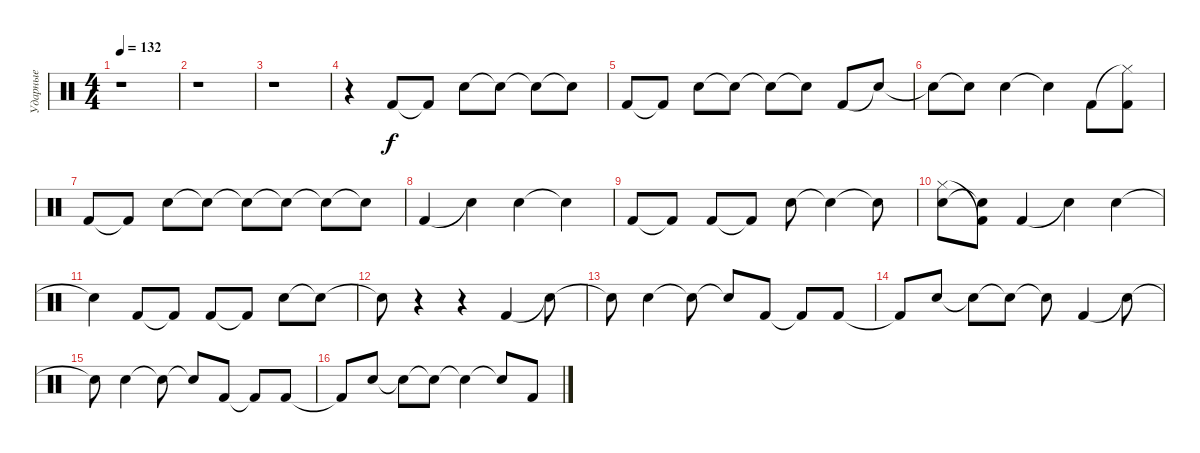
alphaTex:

\track ("Ударные" "Ударные") {instrument percussion}
\staff {score}
\articulation defaults
\ts (4 4)
\tempo 132
\clef neutral
\ks c
r.1{dy f} |
r.1 |
r.1 |
r.4 "Kick (hit) 2".8 "Kick (hit) 2"{t}.8 "Snare (hit) 2".8 "Snare (hit)"{t}.8 "Snare (hit)"{t}.8 "Snare (hit)"{t}.8 |
"Kick (hit) 2".8 "Kick (hit) 2"{t}.8 "Snare (hit) 2".8 "Snare (hit)"{t}.8 "Snare (hit)"{t}.8 "Snare (hit)"{t}.8 "Kick (hit) 2".8 "Snare (hit)"{t}.8 |
"Snare (hit)"{t}.8 "Snare (hit)"{t}.8 "Snare (hit) 2".4 "Snare (hit)"{t}.4 "Kick (hit) 2".8 ("Hi-Hat (closed)"{t} "Kick (hit) 2").8 |
"Kick (hit) 2".8 "Kick (hit) 2"{t}.8 "Snare (hit) 2".8 "Snare (hit)"{t}.8 "Snare (hit)"{t}.8 "Snare (hit)"{t}.8 "Snare (hit)"{t}.8 "Snare (hit)"{t}.8 |
"Kick (hit) 2".4 "Snare (hit)"{t}.4 "Snare (hit) 2".4 "Snare (hit)"{t}.4 |
"Kick (hit) 2".8 "Kick (hit) 2"{t}.8 "Kick (hit) 2".8 "Kick (hit) 2"{t}.8 "Snare (hit) 2".8 "Snare (hit)"{t}.4 "Snare (hit)"{t}.8 |
("Hi-Hat (closed)" "Snare (hit)").8 ("Kick (hit) 2"{t} "Snare (hit)"{t}).8 "Kick (hit) 2".4 "Snare (hit)"{t}.4 "Snare (hit) 2".4 |
"Snare (hit)"{t}.4 "Kick (hit) 2".8 "Kick (hit) 2"{t}.8 "Kick (hit) 2".8 "Kick (hit) 2"{t}.8 "Snare (hit) 2".8 "Snare (hit)"{t}.8 |
"Snare (hit)"{t}.8 r.4 r.4 "Kick (hit) 2".4 "Snare (hit)"{t}.8 |
"Snare (hit)"{t}.8 "Snare (hit) 2".4 "Snare (hit)"{t}.8 "Snare (hit)"{t}.8 "Kick (hit) 2".8 "Kick (hit) 2"{t}.8 "Kick (hit) 2".8 |
"Kick (hit) 2"{t}.8 "Snare (hit) 2".8 "Snare (hit)"{t}.8 "Snare (hit)"{t}.8 "Snare (hit)"{t}.8 "Kick (hit) 2".4 "Snare (hit)"{t}.8 |
"Snare (hit)"{t}.8 "Snare (hit) 2".4 "Snare (hit)"{t}.8 "Snare (hit)"{t}.8 "Kick (hit) 2".8 "Kick (hit) 2"{t}.8 "Kick (hit) 2".8 |
"Kick (hit) 2"{t}.8 "Snare (hit) 2".8 "Snare (hit)"{t}.8 "Snare (hit)"{t}.8 "Snare (hit)"{t}.4 "Snare (hit)"{t}.8 "Kick (hit) 2".8
